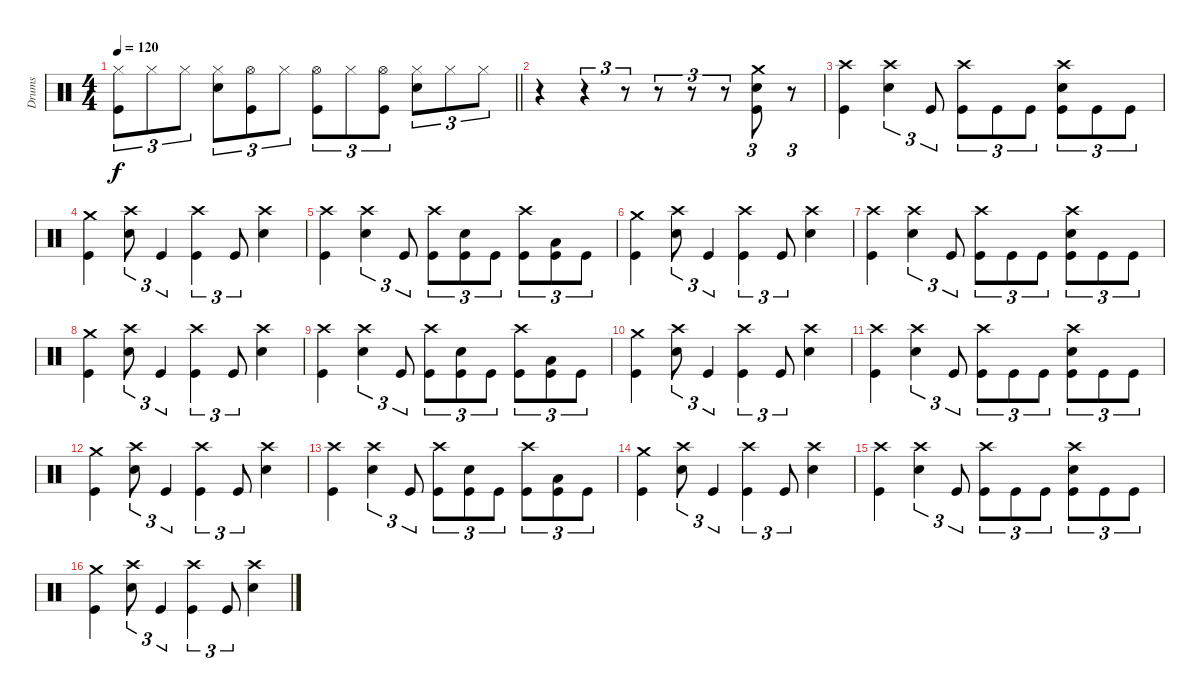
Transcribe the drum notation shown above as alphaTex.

\track ("Drums" "Drums") {instrument percussion}
\staff {score}
\articulation defaults
\ts (4 4)
\tempo 120
\clef neutral
\barLineRight lightlight
\ks c
("Hi-Hat (closed)" "Kick (hit)").8{tu (3 2) dy f} "Hi-Hat (closed)".8{tu (3 2)} "Hi-Hat (closed)".8{tu (3 2)} ("Hi-Hat (closed)" "Snare (hit) 2").8{tu (3 2)} ("Hi-Hat (open)" "Kick (hit)").8{tu (3 2)} "Hi-Hat (closed)".8{tu (3 2)} ("Hi-Hat (open)" "Kick (hit)").8{tu (3 2)} "Hi-Hat (closed)".8{tu (3 2)} ("Hi-Hat (open)" "Kick (hit)").8{tu (3 2)} ("Hi-Hat (closed)" "Snare (hit) 2").8{tu (3 2)} "Hi-Hat (closed)".8{tu (3 2)} "Hi-Hat (closed)".8{tu (3 2)} |
\section ("" "")
r.4 r.4{tu (3 2)} r.8{tu (3 2)} r.8{tu (3 2)} r.8{tu (3 2)} r.8{tu (3 2)} ("Crash medium (hit)" "Snare (hit) 2" "Kick (hit)").8{tu (3 2)} r.8{tu (3 2)} |
("Crash high (hit)" "Kick (hit)").4 ("Crash high (hit)" "Snare (hit) 2").4{tu (3 2)} "Kick (hit)".8{tu (3 2)} ("Crash high (hit)" "Kick (hit)").8{tu (3 2)} "Kick (hit)".8{tu (3 2)} "Kick (hit)".8{tu (3 2)} ("Crash high (hit)" "Snare (hit) 2" "Kick (hit)").8{tu (3 2)} "Kick (hit)".8{tu (3 2)} "Kick (hit)".8{tu (3 2)} |
("Crash medium (hit)" "Kick (hit)").4 ("Crash high (hit)" "Snare (hit) 2").8{tu (3 2)} "Kick (hit)".4{tu (3 2)} ("Crash high (hit)" "Kick (hit)").4{tu (3 2)} "Kick (hit)".8{tu (3 2)} ("Crash high (hit)" "Snare (hit) 2").4 |
("Crash high (hit)" "Kick (hit)").4 ("Crash high (hit)" "Snare (hit) 2").4{tu (3 2)} "Kick (hit)".8{tu (3 2)} ("Crash high (hit)" "Kick (hit)").8{tu (3 2)} ("Snare (hit) 2" "Kick (hit)").8{tu (3 2)} "Kick (hit)".8{tu (3 2)} ("Crash high (hit)" "Kick (hit)").8{tu (3 2)} ("Low Tom (hit)" "Kick (hit)").8{tu (3 2)} "Kick (hit)".8{tu (3 2)} |
("Crash medium (hit)" "Kick (hit)").4 ("Crash high (hit)" "Snare (hit) 2").8{tu (3 2)} "Kick (hit)".4{tu (3 2)} ("Crash high (hit)" "Kick (hit)").4{tu (3 2)} "Kick (hit)".8{tu (3 2)} ("Crash high (hit)" "Snare (hit) 2").4 |
("Crash high (hit)" "Kick (hit)").4 ("Crash high (hit)" "Snare (hit) 2").4{tu (3 2)} "Kick (hit)".8{tu (3 2)} ("Crash high (hit)" "Kick (hit)").8{tu (3 2)} "Kick (hit)".8{tu (3 2)} "Kick (hit)".8{tu (3 2)} ("Crash high (hit)" "Snare (hit) 2" "Kick (hit)").8{tu (3 2)} "Kick (hit)".8{tu (3 2)} "Kick (hit)".8{tu (3 2)} |
("Crash medium (hit)" "Kick (hit)").4 ("Crash high (hit)" "Snare (hit) 2").8{tu (3 2)} "Kick (hit)".4{tu (3 2)} ("Crash high (hit)" "Kick (hit)").4{tu (3 2)} "Kick (hit)".8{tu (3 2)} ("Crash high (hit)" "Snare (hit) 2").4 |
("Crash high (hit)" "Kick (hit)").4 ("Crash high (hit)" "Snare (hit) 2").4{tu (3 2)} "Kick (hit)".8{tu (3 2)} ("Crash high (hit)" "Kick (hit)").8{tu (3 2)} ("Snare (hit) 2" "Kick (hit)").8{tu (3 2)} "Kick (hit)".8{tu (3 2)} ("Crash high (hit)" "Kick (hit)").8{tu (3 2)} ("Low Tom (hit)" "Kick (hit)").8{tu (3 2)} "Kick (hit)".8{tu (3 2)} |
("Crash medium (hit)" "Kick (hit)").4 ("Crash high (hit)" "Snare (hit) 2").8{tu (3 2)} "Kick (hit)".4{tu (3 2)} ("Crash high (hit)" "Kick (hit)").4{tu (3 2)} "Kick (hit)".8{tu (3 2)} ("Crash high (hit)" "Snare (hit) 2").4 |
("Crash high (hit)" "Kick (hit)").4 ("Crash high (hit)" "Snare (hit) 2").4{tu (3 2)} "Kick (hit)".8{tu (3 2)} ("Crash high (hit)" "Kick (hit)").8{tu (3 2)} "Kick (hit)".8{tu (3 2)} "Kick (hit)".8{tu (3 2)} ("Crash high (hit)" "Snare (hit) 2" "Kick (hit)").8{tu (3 2)} "Kick (hit)".8{tu (3 2)} "Kick (hit)".8{tu (3 2)} |
("Crash medium (hit)" "Kick (hit)").4 ("Crash high (hit)" "Snare (hit) 2").8{tu (3 2)} "Kick (hit)".4{tu (3 2)} ("Crash high (hit)" "Kick (hit)").4{tu (3 2)} "Kick (hit)".8{tu (3 2)} ("Crash high (hit)" "Snare (hit) 2").4 |
("Crash high (hit)" "Kick (hit)").4 ("Crash high (hit)" "Snare (hit) 2").4{tu (3 2)} "Kick (hit)".8{tu (3 2)} ("Crash high (hit)" "Kick (hit)").8{tu (3 2)} ("Snare (hit) 2" "Kick (hit)").8{tu (3 2)} "Kick (hit)".8{tu (3 2)} ("Crash high (hit)" "Kick (hit)").8{tu (3 2)} ("Low Tom (hit)" "Kick (hit)").8{tu (3 2)} "Kick (hit)".8{tu (3 2)} |
("Crash medium (hit)" "Kick (hit)").4 ("Crash high (hit)" "Snare (hit) 2").8{tu (3 2)} "Kick (hit)".4{tu (3 2)} ("Crash high (hit)" "Kick (hit)").4{tu (3 2)} "Kick (hit)".8{tu (3 2)} ("Crash high (hit)" "Snare (hit) 2").4 |
("Crash high (hit)" "Kick (hit)").4 ("Crash high (hit)" "Snare (hit) 2").4{tu (3 2)} "Kick (hit)".8{tu (3 2)} ("Crash high (hit)" "Kick (hit)").8{tu (3 2)} "Kick (hit)".8{tu (3 2)} "Kick (hit)".8{tu (3 2)} ("Crash high (hit)" "Snare (hit) 2" "Kick (hit)").8{tu (3 2)} "Kick (hit)".8{tu (3 2)} "Kick (hit)".8{tu (3 2)} |
("Crash medium (hit)" "Kick (hit)").4 ("Crash high (hit)" "Snare (hit) 2").8{tu (3 2)} "Kick (hit)".4{tu (3 2)} ("Crash high (hit)" "Kick (hit)").4{tu (3 2)} "Kick (hit)".8{tu (3 2)} ("Crash high (hit)" "Snare (hit) 2").4
